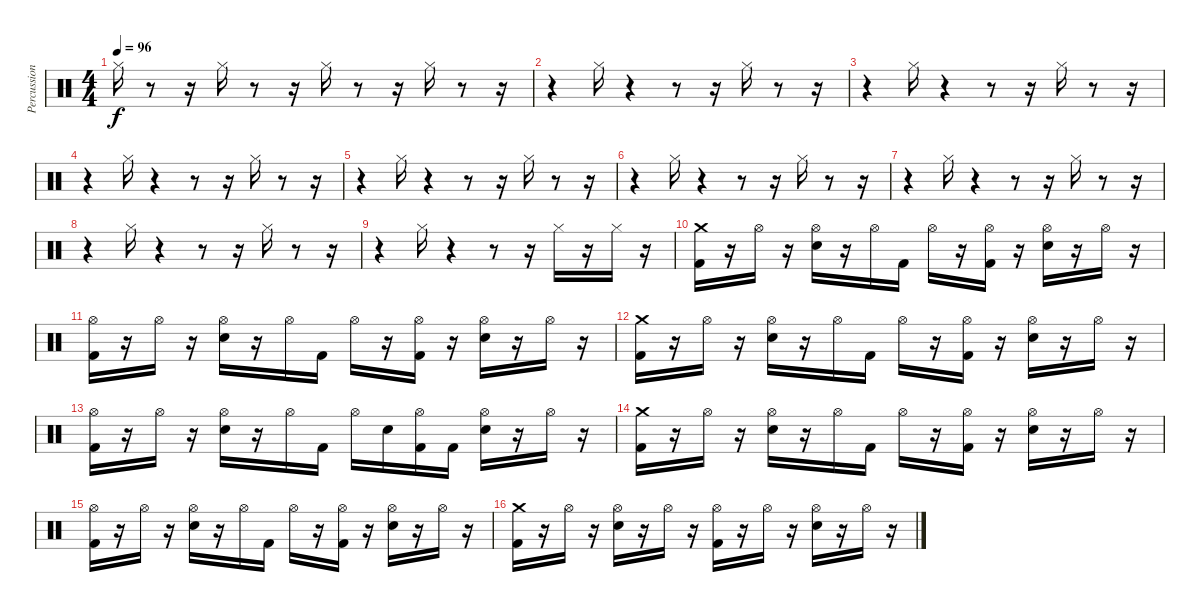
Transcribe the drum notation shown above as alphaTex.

\track ("Percussion" "Percussion") {instrument percussion}
\staff {score}
\articulation defaults
\ts (4 4)
\tempo 96
\clef neutral
\ks c "Hi-Hat (closed)".16{dy f}
r.8 r.16 "Hi-Hat (closed)".16 r.8 r.16 "Hi-Hat (closed)".16 r.8 r.16 "Hi-Hat (closed)".16 r.8 r.16 |
r.4 "Hi-Hat (closed)".16 r.4 r.8 r.16 "Hi-Hat (closed)".16 r.8 r.16 |
r.4 "Hi-Hat (closed)".16 r.4 r.8 r.16 "Hi-Hat (closed)".16 r.8 r.16 |
r.4 "Hi-Hat (closed)".16 r.4 r.8 r.16 "Hi-Hat (closed)".16 r.8 r.16 |
r.4 "Hi-Hat (closed)".16 r.4 r.8 r.16 "Hi-Hat (closed)".16 r.8 r.16 |
r.4 "Hi-Hat (closed)".16 r.4 r.8 r.16 "Hi-Hat (closed)".16 r.8 r.16 |
r.4 "Hi-Hat (closed)".16 r.4 r.8 r.16 "Hi-Hat (closed)".16 r.8 r.16 |
r.4 "Hi-Hat (closed)".16 r.4 r.8 r.16 "Hi-Hat (closed)".16 r.8 r.16 |
r.4 "Hi-Hat (closed)".16 r.4 r.8 r.16 "Hi-Hat (closed)".16 r.16 "Hi-Hat (closed)".16 r.16 |
("Kick (hit) 2" "Crash medium (hit)").16 r.16 "Hi-Hat (open)".16 r.16 ("Electric Snare (hit)" "Hi-Hat (open)").16 r.16 "Hi-Hat (open)".16 "Kick (hit) 2".16 "Hi-Hat (open)".16 r.16 ("Hi-Hat (open)" "Kick (hit) 2").16 r.16 ("Hi-Hat (open)" "Electric Snare (hit)").16 r.16 "Hi-Hat (open)".16 r.16 |
("Hi-Hat (open)" "Kick (hit) 2").16 r.16 "Hi-Hat (open)".16 r.16 ("Hi-Hat (open)" "Electric Snare (hit)").16 r.16 "Hi-Hat (open)".16 "Kick (hit) 2".16 "Hi-Hat (open)".16 r.16 ("Hi-Hat (open)" "Kick (hit) 2").16 r.16 ("Hi-Hat (open)" "Electric Snare (hit)").16 r.16 "Hi-Hat (open)".16 r.16 |
("Kick (hit) 2" "Crash medium (hit)").16 r.16 "Hi-Hat (open)".16 r.16 ("Electric Snare (hit)" "Hi-Hat (open)").16 r.16 "Hi-Hat (open)".16 "Kick (hit) 2".16 "Hi-Hat (open)".16 r.16 ("Hi-Hat (open)" "Kick (hit) 2").16 r.16 ("Hi-Hat (open)" "Electric Snare (hit)").16 r.16 "Hi-Hat (open)".16 r.16 |
("Hi-Hat (open)" "Kick (hit) 2").16 r.16 "Hi-Hat (open)".16 r.16 ("Hi-Hat (open)" "Electric Snare (hit)").16 r.16 "Hi-Hat (open)".16 "Kick (hit) 2".16 "Hi-Hat (open)".16 "Electric Snare (hit)".16 ("Hi-Hat (open)" "Kick (hit) 2").16 "Kick (hit) 2".16 ("Hi-Hat (open)" "Electric Snare (hit)").16 r.16 "Hi-Hat (open)".16 r.16 |
("Kick (hit) 2" "Crash medium (hit)").16 r.16 "Hi-Hat (open)".16 r.16 ("Electric Snare (hit)" "Hi-Hat (open)").16 r.16 "Hi-Hat (open)".16 "Kick (hit) 2".16 "Hi-Hat (open)".16 r.16 ("Hi-Hat (open)" "Kick (hit) 2").16 r.16 ("Hi-Hat (open)" "Electric Snare (hit)").16 r.16 "Hi-Hat (open)".16 r.16 |
("Hi-Hat (open)" "Kick (hit) 2").16 r.16 "Hi-Hat (open)".16 r.16 ("Hi-Hat (open)" "Electric Snare (hit)").16 r.16 "Hi-Hat (open)".16 "Kick (hit) 2".16 "Hi-Hat (open)".16 r.16 ("Hi-Hat (open)" "Kick (hit) 2").16 r.16 ("Hi-Hat (open)" "Electric Snare (hit)").16 r.16 "Hi-Hat (open)".16 r.16 |
("Kick (hit) 2" "Crash medium (hit)").16 r.16 "Hi-Hat (open)".16 r.16 ("Electric Snare (hit)" "Hi-Hat (open)").16 r.16 "Hi-Hat (open)".16 r.16 ("Kick (hit) 2" "Hi-Hat (open)").16 r.16 "Hi-Hat (open)".16 r.16 ("Hi-Hat (open)" "Electric Snare (hit)").16 r.16 "Hi-Hat (open)".16 r.16
